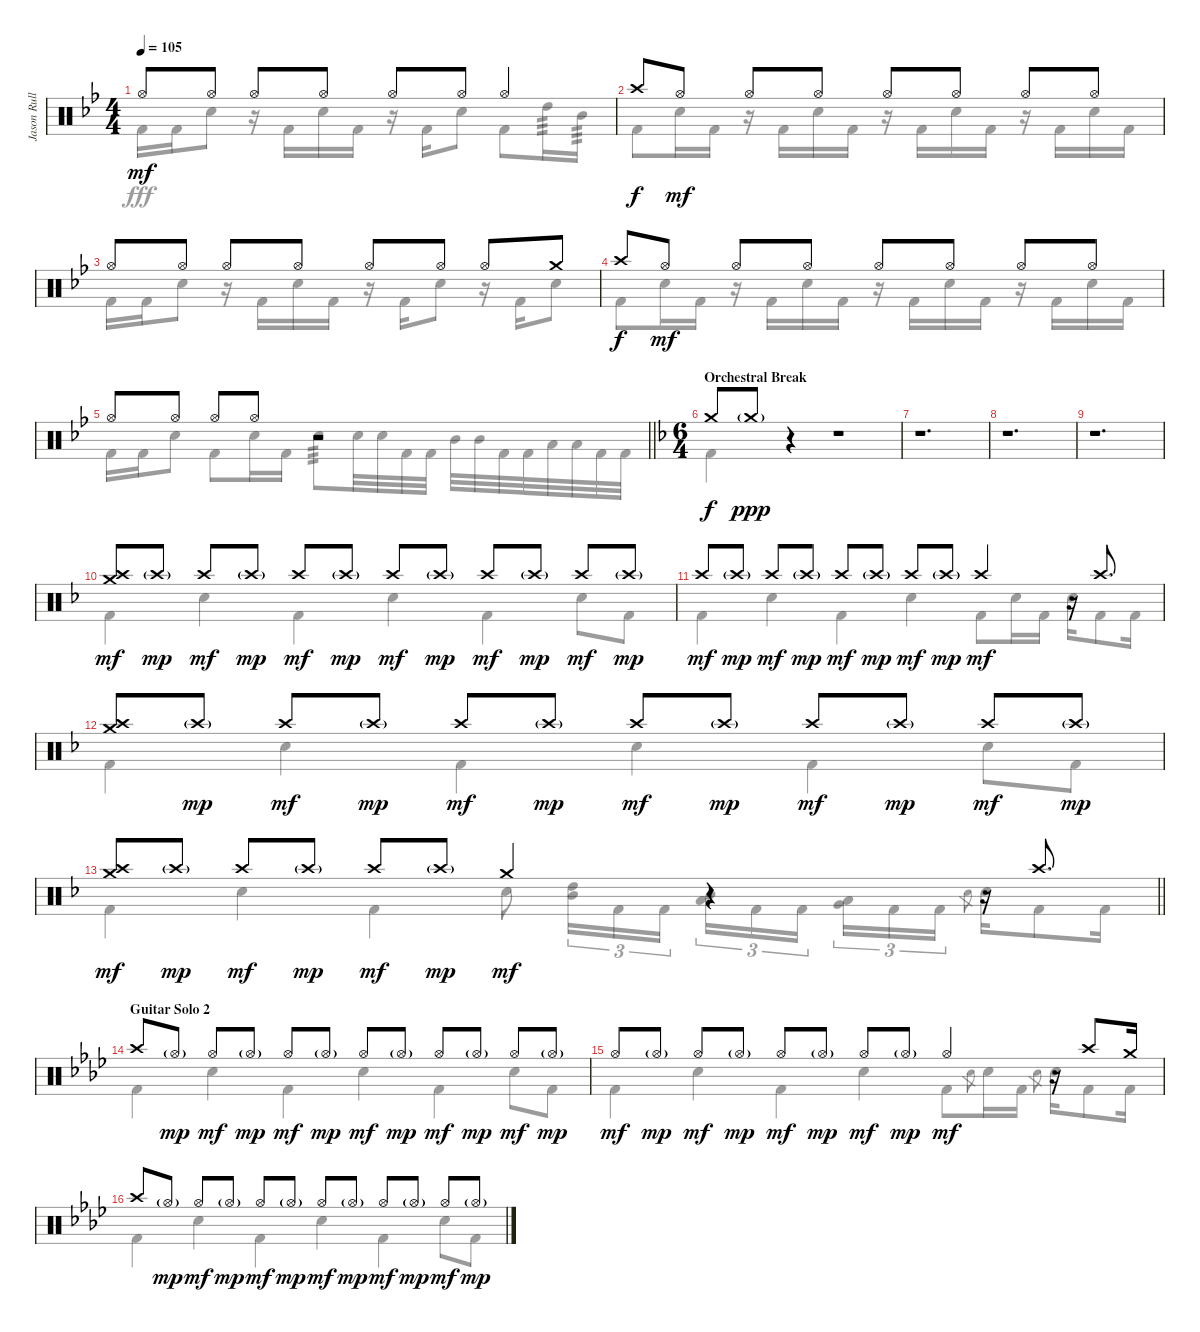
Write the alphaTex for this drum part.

\track ("Jason Rullo Drums" "Jason Rull") {instrument percussion}
\staff {score}
\articulation defaults
\voice
\ts (4 4)
\tempo 105
\clef neutral
\ks gminor "Hi-Hat (open)".8{dy mf} "Hi-Hat (open)".8 "Hi-Hat (open)".8 "Hi-Hat (open)".8 "Hi-Hat (open)".8 "Hi-Hat (open)".8 "Hi-Hat (open)".4
|
"Crash high (hit)".8{dy f} "Hi-Hat (open)".8{dy mf} "Hi-Hat (open)".8 "Hi-Hat (open)".8 "Hi-Hat (open)".8 "Hi-Hat (open)".8 "Hi-Hat (open)".8 "Hi-Hat (open)".8 |
"Hi-Hat (open)".8 "Hi-Hat (open)".8 "Hi-Hat (open)".8 "Hi-Hat (open)".8 "Hi-Hat (open)".8 "Hi-Hat (open)".8 "Hi-Hat (open)".8 "Crash medium (hit)".8 |
"Crash high (hit)".8{dy f} "Hi-Hat (open)".8{dy mf} "Hi-Hat (open)".8 "Hi-Hat (open)".8 "Hi-Hat (open)".8 "Hi-Hat (open)".8 "Hi-Hat (open)".8 "Hi-Hat (open)".8 |
\barLineRight lightlight "Hi-Hat (open)".8 "Hi-Hat (open)".8 "Hi-Hat (open)".8 "Hi-Hat (open)".8
r.2 |
\ts (6 4)
\section ("" "Orchestral Break")
\ks dminor "Crash medium (hit)".8{dy f} "Crash medium (hit)"{g}.8{dy ppp}
r.4 r.1 |
r.1{d} |
r.1{d} |
r.1{d} |
("Crash high (hit)" "Crash medium (hit)").8{dy mf} "Crash high (hit)"{g}.8{dy mp} "Crash high (hit)".8{dy mf} "Crash high (hit)"{g}.8{dy mp} "Crash high (hit)".8{dy mf} "Crash high (hit)"{g}.8{dy mp} "Crash high (hit)".8{dy mf} "Crash high (hit)"{g}.8{dy mp} "Crash high (hit)".8{dy mf} "Crash high (hit)"{g}.8{dy mp} "Crash high (hit)".8{dy mf} "Crash high (hit)"{g}.8{dy mp} |
"Crash high (hit)".8{dy mf} "Crash high (hit)"{g}.8{dy mp} "Crash high (hit)".8{dy mf} "Crash high (hit)"{g}.8{dy mp} "Crash high (hit)".8{dy mf} "Crash high (hit)"{g}.8{dy mp} "Crash high (hit)".8{dy mf} "Crash high (hit)"{g}.8{dy mp} "Crash high (hit)".4{dy mf} r.16 "Crash high (hit)".8{d} |
("Crash high (hit)" "Crash medium (hit)").8 "Crash high (hit)"{g}.8{dy mp} "Crash high (hit)".8{dy mf} "Crash high (hit)"{g}.8{dy mp} "Crash high (hit)".8{dy mf} "Crash high (hit)"{g}.8{dy mp} "Crash high (hit)".8{dy mf} "Crash high (hit)"{g}.8{dy mp} "Crash high (hit)".8{dy mf} "Crash high (hit)"{g}.8{dy mp} "Crash high (hit)".8{dy mf} "Crash high (hit)"{g}.8{dy mp} |
\barLineRight lightlight
("Crash high (hit)" "Crash medium (hit)").8{dy mf} "Crash high (hit)"{g}.8{dy mp} "Crash high (hit)".8{dy mf} "Crash high (hit)"{g}.8{dy mp} "Crash high (hit)".8{dy mf} "Crash high (hit)"{g}.8{dy mp} "Crash medium (hit)".4{dy mf} r.4 r.16 "Crash high (hit)".8{d} |
\section ("" "Guitar Solo 2")
\ks fminor "Crash high (hit)".8 "Hi-Hat (open)"{g}.8{dy mp} "Hi-Hat (open)".8{dy mf} "Hi-Hat (open)"{g}.8{dy mp} "Hi-Hat (open)".8{dy mf} "Hi-Hat (open)"{g}.8{dy mp} "Hi-Hat (open)".8{dy mf} "Hi-Hat (open)"{g}.8{dy mp} "Hi-Hat (open)".8{dy mf} "Hi-Hat (open)"{g}.8{dy mp} "Hi-Hat (open)".8{dy mf} "Hi-Hat (open)"{g}.8{dy mp}
|
"Hi-Hat (open)".8{dy mf} "Hi-Hat (open)"{g}.8{dy mp} "Hi-Hat (open)".8{dy mf} "Hi-Hat (open)"{g}.8{dy mp} "Hi-Hat (open)".8{dy mf} "Hi-Hat (open)"{g}.8{dy mp} "Hi-Hat (open)".8{dy mf} "Hi-Hat (open)"{g}.8{dy mp} "Hi-Hat (open)".4{dy mf} r.16 "Crash high (hit)".8 "Crash medium (hit)".16 |
"Crash high (hit)".8 "Hi-Hat (open)"{g}.8{dy mp} "Hi-Hat (open)".8{dy mf} "Hi-Hat (open)"{g}.8{dy mp} "Hi-Hat (open)".8{dy mf} "Hi-Hat (open)"{g}.8{dy mp} "Hi-Hat (open)".8{dy mf} "Hi-Hat (open)"{g}.8{dy mp} "Hi-Hat (open)".8{dy mf} "Hi-Hat (open)"{g}.8{dy mp} "Hi-Hat (open)".8{dy mf} "Hi-Hat (open)"{g}.8{dy mp}
\voice
\clef neutral
\ottava regular
\simile none
\ks gminor "Kick (hit) 2".16{dy fff} "Kick (hit) 2".16 "Electric Snare (hit)".8
r.16 "Kick (hit) 2".16 "Electric Snare (hit)".16 "Kick (hit) 2".16 r.16 "Kick (hit) 2".16 "Electric Snare (hit)".8 "Kick (hit) 2".8 "High Tom (hit)".16{tp 3} "Mid Tom (hit)".16{tp 3} |
"Kick (hit) 2".8 "Electric Snare (hit)".16 "Kick (hit) 2".16 r.16 "Kick (hit) 2".16 "Electric Snare (hit)".16 "Kick (hit) 2".16 r.16 "Kick (hit) 2".16 "Electric Snare (hit)".16 "Kick (hit) 2".16 r.16 "Kick (hit) 2".16 "Electric Snare (hit)".16 "Kick (hit) 2".16 |
"Kick (hit) 2".16 "Kick (hit) 2".16 "Electric Snare (hit)".8 r.16 "Kick (hit) 2".16 "Electric Snare (hit)".16 "Kick (hit) 2".16 r.16 "Kick (hit) 2".16 "Electric Snare (hit)".8 r.16 "Kick (hit) 2".16 "Electric Snare (hit)".8 |
"Kick (hit) 2".8 "Electric Snare (hit)".16 "Kick (hit) 2".16 r.16 "Kick (hit) 2".16 "Electric Snare (hit)".16 "Kick (hit) 2".16 r.16 "Kick (hit) 2".16 "Electric Snare (hit)".16 "Kick (hit) 2".16 r.16 "Kick (hit) 2".16 "Electric Snare (hit)".16 "Kick (hit) 2".16 |
\barLineRight lightlight "Kick (hit) 2".16 "Kick (hit) 2".16 "Electric Snare (hit)".8 "Kick (hit) 2".8 "Electric Snare (hit)".16 "Kick (hit) 2".16 "Electric Snare (hit)".8{tp 3} "Electric Snare (hit)".32 "Electric Snare (hit)".32 "Kick (hit) 2".32 "Kick (hit) 2".32 "Mid Tom (hit)".32 "Mid Tom (hit)".32 "Kick (hit) 2".32 "Kick (hit) 2".32 "Low Tom (hit)".32 "Low Tom (hit)".32 "Kick (hit) 2".32 "Kick (hit) 2".32
|
\ks dminor "Kick (hit) 2".4
r.4 r.1 |
r.1{d} |
r.1{d} |
r.1{d} |
"Kick (hit) 2".4 "Electric Snare (hit)".4 "Kick (hit) 2".4 "Electric Snare (hit)".4 "Kick (hit) 2".4 "Electric Snare (hit)".8 "Kick (hit) 2".8 |
"Kick (hit) 2".4 "Electric Snare (hit)".4 "Kick (hit) 2".4 "Electric Snare (hit)".4 "Kick (hit) 2".8 "Electric Snare (hit)".16 "Kick (hit) 2".16 "Electric Snare (hit)".16 "Kick (hit) 2".8 "Kick (hit) 2".16 |
"Kick (hit) 2".4 "Electric Snare (hit)".4 "Kick (hit) 2".4 "Electric Snare (hit)".4 "Kick (hit) 2".4 "Electric Snare (hit)".8 "Kick (hit) 2".8 |
\barLineRight lightlight "Kick (hit) 2".4 "Electric Snare (hit)".4 "Kick (hit) 2".4 "Electric Snare (hit)".8
("High Tom (hit)" "Mid Tom (hit)").16{tu (3 2)} "Kick (hit) 2".16{tu (3 2)} "Kick (hit) 2".16{tu (3 2) beam splitsecondary} ("Mid Tom (hit)" "Low Tom (hit)").16{tu (3 2)} "Kick (hit) 2".16{tu (3 2)} "Kick (hit) 2".16{tu (3 2) beam splitsecondary} ("Low Tom (hit)" "Very Low Tom (hit)").16{tu (3 2)} "Kick (hit) 2".16{tu (3 2)} "Kick (hit) 2".16{tu (3 2)} "Electric Snare (hit)".8{gr beam splitsecondary} "Electric Snare (hit)".16 "Kick (hit) 2".8 "Kick (hit) 2".16 |
\ks fminor "Kick (hit) 2".4 "Electric Snare (hit)".4 "Kick (hit) 2".4 "Electric Snare (hit)".4 "Kick (hit) 2".4 "Electric Snare (hit)".8 "Kick (hit) 2".8
|
"Kick (hit) 2".4 "Electric Snare (hit)".4 "Kick (hit) 2".4 "Electric Snare (hit)".4 "Kick (hit) 2".8 "Electric Snare (hit)".8{gr} "Electric Snare (hit)".16 "Kick (hit) 2".16 "Electric Snare (hit)".8{gr} "Electric Snare (hit)".16 "Kick (hit) 2".8 "Kick (hit) 2".16 |
"Kick (hit) 2".4 "Electric Snare (hit)".4 "Kick (hit) 2".4 "Electric Snare (hit)".4 "Kick (hit) 2".4 "Electric Snare (hit)".8 "Kick (hit) 2".8
